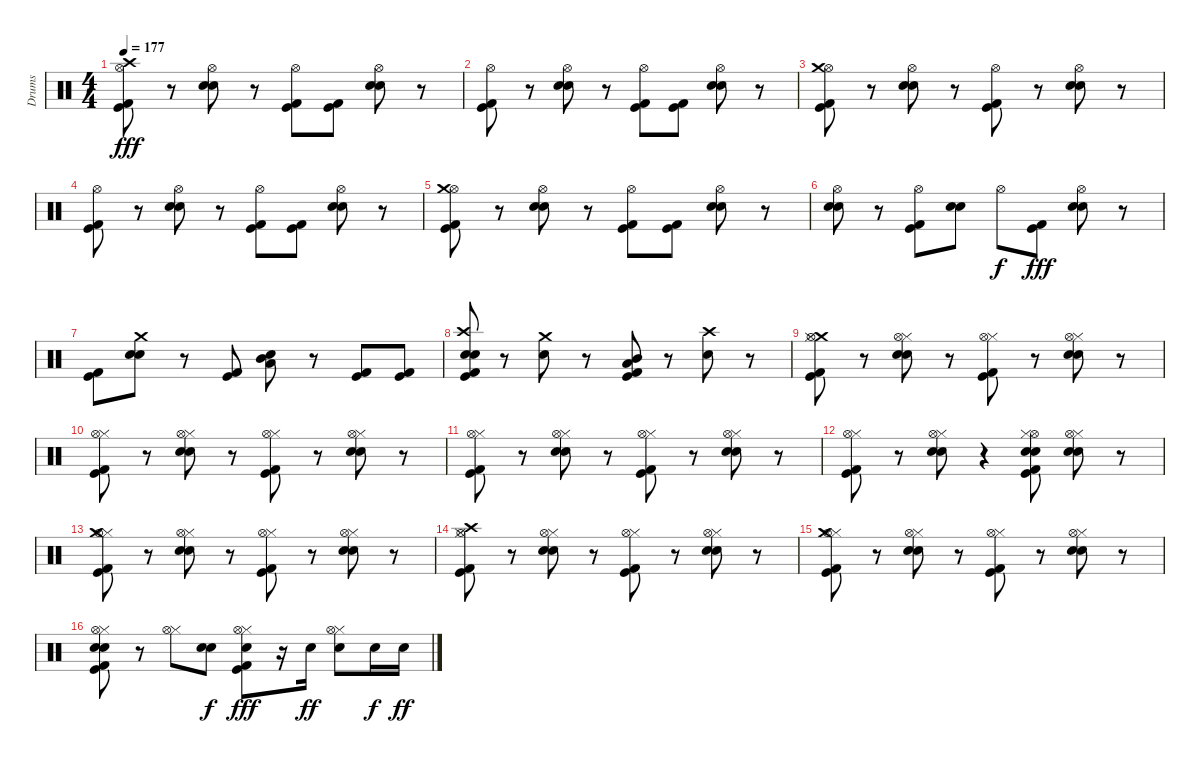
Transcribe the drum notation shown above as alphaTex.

\track ("Drums" "Drums") {instrument percussion}
\staff {score}
\articulation defaults
\ts (4 4)
\tempo 177
\clef neutral
\ks c
("Hi-Hat (open)" "Kick (hit) 2" "Kick (hit)" "Crash high (hit)").8{dy fff} r.8 ("Hi-Hat (open)" "Electric Snare (hit)" "Snare (hit) 2").8 r.8 ("Hi-Hat (open)" "Kick (hit) 2" "Kick (hit)").8 ("Kick (hit) 2" "Kick (hit)").8 ("Hi-Hat (open)" "Electric Snare (hit)" "Snare (hit) 2").8 r.8 |
("Hi-Hat (open)" "Kick (hit) 2" "Kick (hit)").8 r.8 ("Hi-Hat (open)" "Electric Snare (hit)" "Snare (hit) 2").8 r.8 ("Hi-Hat (open)" "Kick (hit) 2" "Kick (hit)").8 ("Kick (hit) 2" "Kick (hit)").8 ("Hi-Hat (open)" "Electric Snare (hit)" "Snare (hit) 2").8 r.8 |
("Hi-Hat (open)" "Crash medium (hit)" "Kick (hit) 2" "Kick (hit)").8 r.8 ("Hi-Hat (open)" "Electric Snare (hit)" "Snare (hit) 2").8 r.8 ("Hi-Hat (open)" "Kick (hit) 2" "Kick (hit)").8 r.8 ("Hi-Hat (open)" "Electric Snare (hit)" "Snare (hit) 2").8 r.8 |
("Hi-Hat (open)" "Kick (hit) 2" "Kick (hit)").8 r.8 ("Hi-Hat (open)" "Electric Snare (hit)" "Snare (hit) 2").8 r.8 ("Hi-Hat (open)" "Kick (hit) 2" "Kick (hit)").8 ("Kick (hit)" "Kick (hit) 2").8 ("Hi-Hat (open)" "Electric Snare (hit)" "Snare (hit) 2").8 r.8 |
("Hi-Hat (open)" "Kick (hit) 2" "Kick (hit)" "Crash medium (hit)").8 r.8 ("Hi-Hat (open)" "Electric Snare (hit)" "Snare (hit) 2").8 r.8 ("Hi-Hat (open)" "Kick (hit) 2" "Kick (hit)").8 ("Kick (hit) 2" "Kick (hit)").8 ("Hi-Hat (open)" "Electric Snare (hit)" "Snare (hit) 2").8 r.8 |
("Hi-Hat (open)" "Electric Snare (hit)" "Snare (hit) 2").8 r.8 ("Hi-Hat (open)" "Kick (hit) 2" "Kick (hit)").8 ("Electric Snare (hit)" "Snare (hit) 2").8 "Hi-Hat (open)".8{dy f} ("Kick (hit) 2" "Kick (hit)").8{dy fff} ("Hi-Hat (open)" "Electric Snare (hit)" "Snare (hit) 2").8 r.8 |
("Kick (hit) 2" "Kick (hit)").8 ("Electric Snare (hit)" "Snare (hit) 2" "Crash medium (hit)").8 r.8 ("Kick (hit) 2" "Kick (hit)").8 ("Electric Snare (hit)" "Low Tom (hit)" "Mid Tom (hit)").8 r.8 ("Kick (hit) 2" "Kick (hit)").8 ("Kick (hit) 2" "Kick (hit)").8 |
("Crash high (hit)" "Snare (hit) 2" "Electric Snare (hit)" "Kick (hit) 2" "Kick (hit)").8 r.8 ("Crash medium (hit)" "Snare (hit) 2").8 r.8 ("Mid Tom (hit)" "Low Tom (hit)" "Kick (hit) 2" "Kick (hit)").8 r.8 ("Crash high (hit)" "Electric Snare (hit)").8 r.8 |
("Crash medium (hit)" "Kick (hit) 2" "Kick (hit)" "Hi-Hat (closed)" "Hi-Hat (open)").8 r.8 ("Electric Snare (hit)" "Snare (hit) 2" "Hi-Hat (closed)" "Hi-Hat (open)").8 r.8 ("Kick (hit) 2" "Kick (hit)" "Hi-Hat (closed)" "Hi-Hat (open)").8 r.8 ("Electric Snare (hit)" "Snare (hit) 2" "Hi-Hat (closed)" "Hi-Hat (open)").8 r.8 |
("Kick (hit) 2" "Kick (hit)" "Hi-Hat (closed)" "Hi-Hat (open)").8 r.8 ("Electric Snare (hit)" "Snare (hit) 2" "Hi-Hat (closed)" "Hi-Hat (open)").8 r.8 ("Kick (hit) 2" "Kick (hit)" "Hi-Hat (closed)" "Hi-Hat (open)").8 r.8 ("Electric Snare (hit)" "Snare (hit) 2" "Hi-Hat (closed)" "Hi-Hat (open)").8 r.8 |
("Kick (hit) 2" "Kick (hit)" "Hi-Hat (closed)" "Hi-Hat (open)").8 r.8 ("Electric Snare (hit)" "Snare (hit) 2" "Hi-Hat (closed)" "Hi-Hat (open)").8 r.8 ("Kick (hit) 2" "Kick (hit)" "Hi-Hat (closed)" "Hi-Hat (open)").8 r.8 ("Electric Snare (hit)" "Snare (hit) 2" "Hi-Hat (closed)" "Hi-Hat (open)").8 r.8 |
("Kick (hit) 2" "Kick (hit)" "Hi-Hat (closed)" "Hi-Hat (open)").8 r.8 ("Hi-Hat (closed)" "Electric Snare (hit)" "Snare (hit) 2" "Hi-Hat (open)").8 r.4 ("Electric Snare (hit)" "Hi-Hat (open)" "Hi-Hat (closed)" "Kick (hit) 2" "Kick (hit)" "Snare (hit) 2").8 ("Hi-Hat (closed)" "Electric Snare (hit)" "Snare (hit) 2" "Hi-Hat (open)").8 r.8 |
("Kick (hit) 2" "Kick (hit)" "Hi-Hat (closed)" "Hi-Hat (open)" "Crash medium (hit)").8 r.8 ("Electric Snare (hit)" "Snare (hit) 2" "Hi-Hat (closed)" "Hi-Hat (open)").8 r.8 ("Kick (hit) 2" "Kick (hit)" "Hi-Hat (closed)" "Hi-Hat (open)").8 r.8 ("Electric Snare (hit)" "Snare (hit) 2" "Hi-Hat (closed)" "Hi-Hat (open)").8 r.8 |
("Kick (hit) 2" "Kick (hit)" "Hi-Hat (closed)" "Hi-Hat (open)" "Crash high (hit)").8 r.8 ("Electric Snare (hit)" "Snare (hit) 2" "Hi-Hat (closed)" "Hi-Hat (open)").8 r.8 ("Kick (hit) 2" "Kick (hit)" "Hi-Hat (closed)" "Hi-Hat (open)").8 r.8 ("Electric Snare (hit)" "Snare (hit) 2" "Hi-Hat (closed)" "Hi-Hat (open)").8 r.8 |
("Kick (hit) 2" "Kick (hit)" "Hi-Hat (closed)" "Hi-Hat (open)" "Crash medium (hit)").8 r.8 ("Electric Snare (hit)" "Snare (hit) 2" "Hi-Hat (closed)" "Hi-Hat (open)").8 r.8 ("Kick (hit) 2" "Kick (hit)" "Hi-Hat (closed)" "Hi-Hat (open)").8 r.8 ("Electric Snare (hit)" "Snare (hit) 2" "Hi-Hat (closed)" "Hi-Hat (open)").8 r.8 |
("Kick (hit) 2" "Kick (hit)" "Hi-Hat (closed)" "Hi-Hat (open)" "Snare (hit) 2" "Electric Snare (hit)").8 r.8 ("Hi-Hat (closed)" "Hi-Hat (open)").8 ("Electric Snare (hit)" "Snare (hit) 2").8{dy f} ("Kick (hit) 2" "Kick (hit)" "Hi-Hat (closed)" "Hi-Hat (open)" "Electric Snare (hit)").8{dy fff} r.16 "Electric Snare (hit)".16{dy ff} ("Hi-Hat (closed)" "Hi-Hat (open)" "Electric Snare (hit)").8 "Electric Snare (hit)".16{dy f} "Electric Snare (hit)".16{dy ff}
